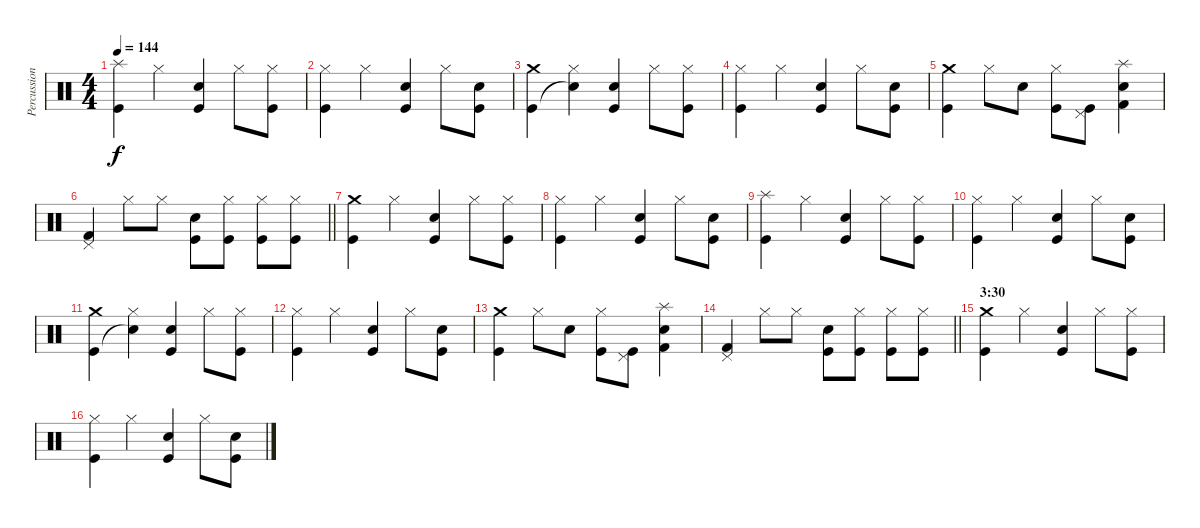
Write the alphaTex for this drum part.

\track ("Percussion" "Percussion") {instrument percussion}
\staff {score}
\articulation defaults
\ts (4 4)
\tempo 144
\clef neutral
\ks c
("Splash (hit)" "Kick (hit)").4{dy f} "Hi-Hat (closed)".4 ("Electric Snare (hit)" "Kick (hit)").4 "Hi-Hat (closed)".8 ("Hi-Hat (closed)" "Kick (hit)").8 |
("Hi-Hat (closed)" "Kick (hit)").4 "Hi-Hat (closed)".4 ("Electric Snare (hit)" "Kick (hit)").4 "Hi-Hat (closed)".8 ("Electric Snare (hit)" "Kick (hit)").8 |
("Crash medium (hit)" "Kick (hit)").4 ("Hi-Hat (closed)" "Snare (hit)"{t}).4 ("Electric Snare (hit)" "Kick (hit)").4 "Hi-Hat (closed)".8 ("Hi-Hat (closed)" "Kick (hit)").8 |
("Hi-Hat (closed)" "Kick (hit)").4 "Hi-Hat (closed)".4 ("Electric Snare (hit)" "Kick (hit)").4 "Hi-Hat (closed)".8 ("Electric Snare (hit)" "Kick (hit)").8 |
("Crash medium (hit)" "Kick (hit)").4 "Hi-Hat (closed)".8 "Electric Snare (hit)".8 ("Hi-Hat (closed)" "Kick (hit)").8 ("Pedal Hi-Hat (hit)" "Kick (hit)").8 ("Splash (hit)" "Electric Snare (hit)" "Kick (hit) 2").4 |
\barLineRight lightlight
("Pedal Hi-Hat (hit)" "Kick (hit) 2").4 "Hi-Hat (closed)".8 "Hi-Hat (closed)".8 ("Electric Snare (hit)" "Kick (hit)").8 ("Hi-Hat (closed)" "Kick (hit)").8 ("Hi-Hat (closed)" "Kick (hit)").8 ("Hi-Hat (closed)" "Kick (hit)").8 |
("Crash medium (hit)" "Kick (hit)").4 "Hi-Hat (closed)".4 ("Electric Snare (hit)" "Kick (hit)").4 "Hi-Hat (closed)".8 ("Hi-Hat (closed)" "Kick (hit)").8 |
("Hi-Hat (closed)" "Kick (hit)").4 "Hi-Hat (closed)".4 ("Electric Snare (hit)" "Kick (hit)").4 "Hi-Hat (closed)".8 ("Electric Snare (hit)" "Kick (hit)").8 |
("Splash (hit)" "Kick (hit)").4 "Hi-Hat (closed)".4 ("Electric Snare (hit)" "Kick (hit)").4 "Hi-Hat (closed)".8 ("Hi-Hat (closed)" "Kick (hit)").8 |
("Hi-Hat (closed)" "Kick (hit)").4 "Hi-Hat (closed)".4 ("Electric Snare (hit)" "Kick (hit)").4 "Hi-Hat (closed)".8 ("Electric Snare (hit)" "Kick (hit)").8 |
("Crash medium (hit)" "Kick (hit)").4 ("Hi-Hat (closed)" "Snare (hit)"{t}).4 ("Electric Snare (hit)" "Kick (hit)").4 "Hi-Hat (closed)".8 ("Hi-Hat (closed)" "Kick (hit)").8 |
("Hi-Hat (closed)" "Kick (hit)").4 "Hi-Hat (closed)".4 ("Electric Snare (hit)" "Kick (hit)").4 "Hi-Hat (closed)".8 ("Electric Snare (hit)" "Kick (hit)").8 |
("Crash medium (hit)" "Kick (hit)").4 "Hi-Hat (closed)".8 "Electric Snare (hit)".8 ("Hi-Hat (closed)" "Kick (hit)").8 ("Pedal Hi-Hat (hit)" "Kick (hit)").8 ("Splash (hit)" "Electric Snare (hit)" "Kick (hit) 2").4 |
\barLineRight lightlight
("Pedal Hi-Hat (hit)" "Kick (hit) 2").4 "Hi-Hat (closed)".8 "Hi-Hat (closed)".8 ("Electric Snare (hit)" "Kick (hit)").8 ("Hi-Hat (closed)" "Kick (hit)").8 ("Hi-Hat (closed)" "Kick (hit)").8 ("Hi-Hat (closed)" "Kick (hit)").8 |
\section ("" "3:30")
("Crash medium (hit)" "Kick (hit)").4 "Hi-Hat (closed)".4 ("Electric Snare (hit)" "Kick (hit)").4 "Hi-Hat (closed)".8 ("Hi-Hat (closed)" "Kick (hit)").8 |
("Hi-Hat (closed)" "Kick (hit)").4 "Hi-Hat (closed)".4 ("Electric Snare (hit)" "Kick (hit)").4 "Hi-Hat (closed)".8 ("Electric Snare (hit)" "Kick (hit)").8
